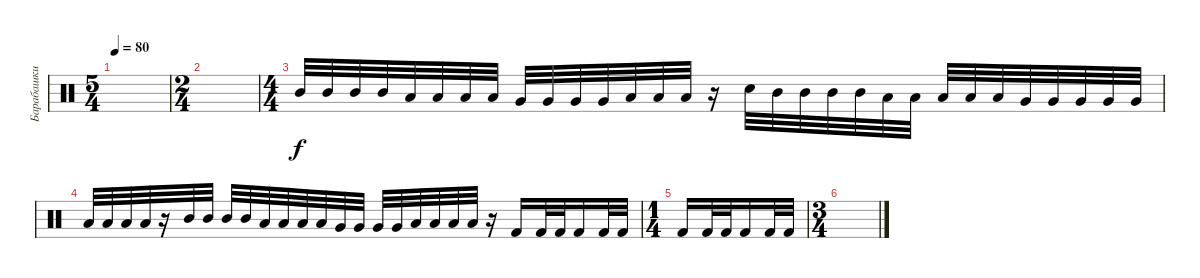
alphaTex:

\track ("Барабашки" "Барабашки") {instrument percussion}
\staff {score}
\articulation defaults
\ts (5 4)
\tempo 80
\clef neutral
\ks c
|
\ts (2 4)
|
\ts (4 4)
"Mid Tom (hit)".32 "Mid Tom (hit)".32 "Mid Tom (hit)".32 "Mid Tom (hit)".32 "Low Tom (hit)".32 "Low Tom (hit)".32 "Low Tom (hit)".32 "Low Tom (hit)".32 "Very Low Tom (hit)".32 "Very Low Tom (hit)".32 "Very Low Tom (hit)".32 "Very Low Tom (hit)".32 "Low Floor Tom (hit)".32 "Low Floor Tom (hit)".32 "Low Floor Tom (hit)".32 r.16 "Snare (hit) 2".32 "Mid Tom (hit)".32 "Mid Tom (hit)".32 "Mid Tom (hit)".32 "Mid Tom (hit)".32 "Low Tom (hit)".32 "Low Tom (hit)".32 "Low Tom (hit)".32 "Low Tom (hit)".32 "Low Tom (hit)".32 "Very Low Tom (hit)".32 "Very Low Tom (hit)".32 "Very Low Tom (hit)".32 "Very Low Tom (hit)".32 "Very Low Tom (hit)".32 |
"Low Floor Tom (hit)".32 "Low Floor Tom (hit)".32 "Low Floor Tom (hit)".32 "Low Floor Tom (hit)".32 r.16 "Mid Tom (hit)".32 "Mid Tom (hit)".32 "Mid Tom (hit)".32 "Mid Tom (hit)".32 "Low Tom (hit)".32 "Low Tom (hit)".32 "Low Tom (hit)".32 "Low Tom (hit)".32 "Very Low Tom (hit)".32 "Very Low Tom (hit)".32 "Very Low Tom (hit)".32 "Very Low Tom (hit)".32 "Low Floor Tom (hit)".32 "Low Floor Tom (hit)".32 "Low Floor Tom (hit)".32 "Low Floor Tom (hit)".32 r.16 "Kick (hit) 2".16 "Kick (hit) 2".32 "Kick (hit) 2".32 "Kick (hit) 2".16 "Kick (hit) 2".32 "Kick (hit) 2".32 |
\ts (1 4)
"Kick (hit) 2".16 "Kick (hit) 2".32 "Kick (hit) 2".32 "Kick (hit) 2".16 "Kick (hit) 2".32 "Kick (hit) 2".32 |
\ts (3 4)
